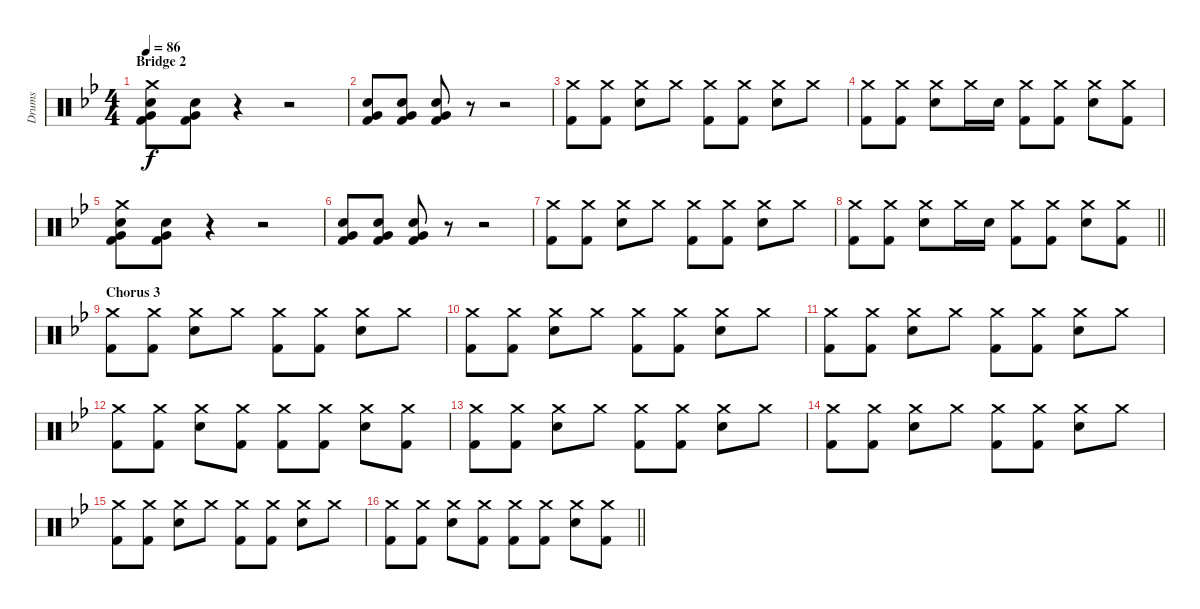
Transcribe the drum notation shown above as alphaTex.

\track ("Drums" "Drums") {instrument percussion}
\staff {score}
\articulation defaults
\ts (4 4)
\section ("" "Bridge 2")
\tempo 86
\clef neutral
\ks gminor
("Crash medium (hit)" "Very Low Tom (hit)" "Snare (hit) 2" "Kick (hit) 2").8{dy f} ("Very Low Tom (hit)" "Snare (hit) 2" "Kick (hit) 2").8 r.4 r.2 |
("Very Low Tom (hit)" "Snare (hit) 2" "Kick (hit) 2").8 ("Very Low Tom (hit)" "Snare (hit) 2" "Kick (hit) 2").8 ("Very Low Tom (hit)" "Snare (hit) 2" "Kick (hit) 2").8 r.8 r.2 |
("Crash medium (hit)" "Kick (hit) 2").8 ("Crash medium (hit)" "Kick (hit) 2").8 ("Crash medium (hit)" "Snare (hit) 2").8 "Crash medium (hit)".8 ("Crash medium (hit)" "Kick (hit) 2").8 ("Crash medium (hit)" "Kick (hit) 2").8 ("Crash medium (hit)" "Snare (hit) 2").8 "Crash medium (hit)".8 |
("Crash medium (hit)" "Kick (hit) 2").8 ("Crash medium (hit)" "Kick (hit) 2").8 ("Crash medium (hit)" "Snare (hit) 2").8 "Crash medium (hit)".16 "Snare (hit) 2".16 ("Crash medium (hit)" "Kick (hit) 2").8 ("Crash medium (hit)" "Kick (hit) 2").8 ("Crash medium (hit)" "Snare (hit) 2").8 ("Crash medium (hit)" "Kick (hit) 2").8 |
("Crash medium (hit)" "Very Low Tom (hit)" "Snare (hit) 2" "Kick (hit) 2").8 ("Very Low Tom (hit)" "Snare (hit) 2" "Kick (hit) 2").8 r.4 r.2 |
("Very Low Tom (hit)" "Snare (hit) 2" "Kick (hit) 2").8 ("Very Low Tom (hit)" "Snare (hit) 2" "Kick (hit) 2").8 ("Very Low Tom (hit)" "Snare (hit) 2" "Kick (hit) 2").8 r.8 r.2 |
("Crash medium (hit)" "Kick (hit) 2").8 ("Crash medium (hit)" "Kick (hit) 2").8 ("Crash medium (hit)" "Snare (hit) 2").8 "Crash medium (hit)".8 ("Crash medium (hit)" "Kick (hit) 2").8 ("Crash medium (hit)" "Kick (hit) 2").8 ("Crash medium (hit)" "Snare (hit) 2").8 "Crash medium (hit)".8 |
\barLineRight lightlight
("Crash medium (hit)" "Kick (hit) 2").8 ("Crash medium (hit)" "Kick (hit) 2").8 ("Crash medium (hit)" "Snare (hit) 2").8 "Crash medium (hit)".16 "Snare (hit) 2".16 ("Crash medium (hit)" "Kick (hit) 2").8 ("Crash medium (hit)" "Kick (hit) 2").8 ("Crash medium (hit)" "Snare (hit) 2").8 ("Crash medium (hit)" "Kick (hit) 2").8 |
\section ("" "Chorus 3")
("Crash medium (hit)" "Kick (hit) 2").8 ("Crash medium (hit)" "Kick (hit) 2").8 ("Crash medium (hit)" "Snare (hit) 2").8 "Crash medium (hit)".8 ("Crash medium (hit)" "Kick (hit) 2").8 ("Crash medium (hit)" "Kick (hit) 2").8 ("Crash medium (hit)" "Snare (hit) 2").8 "Crash medium (hit)".8 |
("Crash medium (hit)" "Kick (hit) 2").8 ("Crash medium (hit)" "Kick (hit) 2").8 ("Crash medium (hit)" "Snare (hit) 2").8 "Crash medium (hit)".8 ("Crash medium (hit)" "Kick (hit) 2").8 ("Crash medium (hit)" "Kick (hit) 2").8 ("Crash medium (hit)" "Snare (hit) 2").8 "Crash medium (hit)".8 |
("Crash medium (hit)" "Kick (hit) 2").8 ("Crash medium (hit)" "Kick (hit) 2").8 ("Crash medium (hit)" "Snare (hit) 2").8 "Crash medium (hit)".8 ("Crash medium (hit)" "Kick (hit) 2").8 ("Crash medium (hit)" "Kick (hit) 2").8 ("Crash medium (hit)" "Snare (hit) 2").8 "Crash medium (hit)".8 |
("Crash medium (hit)" "Kick (hit) 2").8 ("Crash medium (hit)" "Kick (hit) 2").8 ("Crash medium (hit)" "Snare (hit) 2").8 ("Crash medium (hit)" "Kick (hit) 2").8 ("Crash medium (hit)" "Kick (hit) 2").8 ("Crash medium (hit)" "Kick (hit) 2").8 ("Crash medium (hit)" "Snare (hit) 2").8 ("Crash medium (hit)" "Kick (hit) 2").8 |
("Crash medium (hit)" "Kick (hit) 2").8 ("Crash medium (hit)" "Kick (hit) 2").8 ("Crash medium (hit)" "Snare (hit) 2").8 "Crash medium (hit)".8 ("Crash medium (hit)" "Kick (hit) 2").8 ("Crash medium (hit)" "Kick (hit) 2").8 ("Crash medium (hit)" "Snare (hit) 2").8 "Crash medium (hit)".8 |
("Crash medium (hit)" "Kick (hit) 2").8 ("Crash medium (hit)" "Kick (hit) 2").8 ("Crash medium (hit)" "Snare (hit) 2").8 "Crash medium (hit)".8 ("Crash medium (hit)" "Kick (hit) 2").8 ("Crash medium (hit)" "Kick (hit) 2").8 ("Crash medium (hit)" "Snare (hit) 2").8 "Crash medium (hit)".8 |
("Crash medium (hit)" "Kick (hit) 2").8 ("Crash medium (hit)" "Kick (hit) 2").8 ("Crash medium (hit)" "Snare (hit) 2").8 "Crash medium (hit)".8 ("Crash medium (hit)" "Kick (hit) 2").8 ("Crash medium (hit)" "Kick (hit) 2").8 ("Crash medium (hit)" "Snare (hit) 2").8 "Crash medium (hit)".8 |
\barLineRight lightlight
("Crash medium (hit)" "Kick (hit) 2").8 ("Crash medium (hit)" "Kick (hit) 2").8 ("Crash medium (hit)" "Snare (hit) 2").8 ("Crash medium (hit)" "Kick (hit) 2").8 ("Crash medium (hit)" "Kick (hit) 2").8 ("Crash medium (hit)" "Kick (hit) 2").8 ("Crash medium (hit)" "Snare (hit) 2").8 ("Crash medium (hit)" "Kick (hit) 2").8
